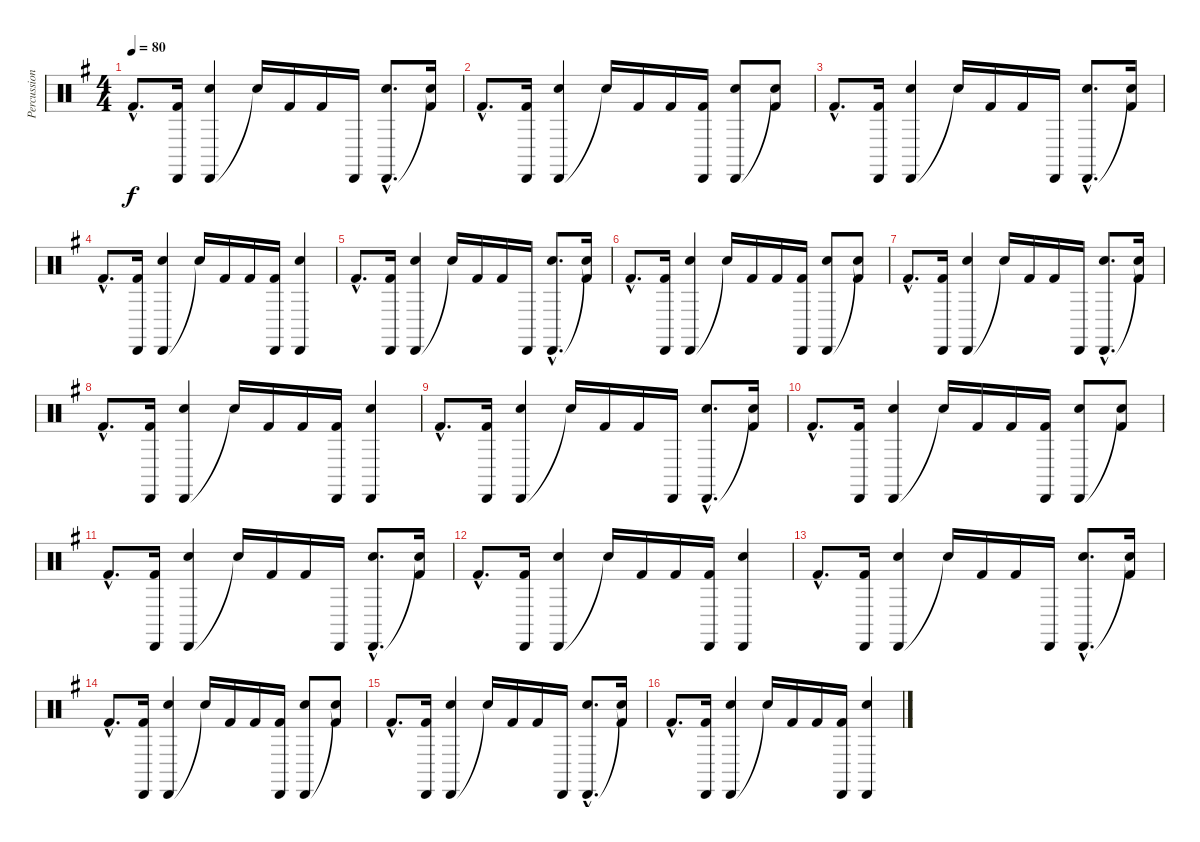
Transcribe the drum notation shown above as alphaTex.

\track ("Percussions" "Percussion") {instrument percussion}
\staff {score}
\articulation defaults
\ts (4 4)
\tempo 80
\clef neutral
\ks g "Kick (hit) 2"{hac}.8{d dy f}
("Cabasa (hit)" "Kick (hit) 2").16 ("Cabasa (hit)" "Electric Snare (hit)").4 "Snare (hit)"{t}.16 "Kick (hit) 2".16 "Kick (hit) 2".16 "Cabasa (hit)".16 ("Cabasa (hit)"{hac} "Electric Snare (hit)"{hac}).8{d} ("Snare (hit)"{t} "Kick (hit) 2").16 |
"Kick (hit) 2"{hac}.8{d} ("Cabasa (hit)" "Kick (hit) 2").16 ("Cabasa (hit)" "Electric Snare (hit)").4 "Snare (hit)"{t}.16 "Kick (hit) 2".16 "Kick (hit) 2".16 ("Cabasa (hit)" "Kick (hit) 2").16 ("Cabasa (hit)" "Electric Snare (hit)").8 ("Snare (hit)"{t} "Kick (hit) 2").8 |
"Kick (hit) 2"{hac}.8{d} ("Cabasa (hit)" "Kick (hit) 2").16 ("Cabasa (hit)" "Electric Snare (hit)").4 "Snare (hit)"{t}.16 "Kick (hit) 2".16 "Kick (hit) 2".16 "Cabasa (hit)".16 ("Cabasa (hit)"{hac} "Electric Snare (hit)"{hac}).8{d} ("Snare (hit)"{t} "Kick (hit) 2").16 |
"Kick (hit) 2"{hac}.8{d} ("Cabasa (hit)" "Kick (hit) 2").16 ("Cabasa (hit)" "Electric Snare (hit)").4 "Snare (hit)"{t}.16 "Kick (hit) 2".16 "Kick (hit) 2".16 ("Cabasa (hit)" "Kick (hit) 2").16 ("Cabasa (hit)" "Electric Snare (hit)").4 |
"Kick (hit) 2"{hac}.8{d} ("Cabasa (hit)" "Kick (hit) 2").16 ("Cabasa (hit)" "Electric Snare (hit)").4 "Snare (hit)"{t}.16 "Kick (hit) 2".16 "Kick (hit) 2".16 "Cabasa (hit)".16 ("Cabasa (hit)"{hac} "Electric Snare (hit)"{hac}).8{d} ("Snare (hit)"{t} "Kick (hit) 2").16 |
"Kick (hit) 2"{hac}.8{d} ("Cabasa (hit)" "Kick (hit) 2").16 ("Cabasa (hit)" "Electric Snare (hit)").4 "Snare (hit)"{t}.16 "Kick (hit) 2".16 "Kick (hit) 2".16 ("Cabasa (hit)" "Kick (hit) 2").16 ("Cabasa (hit)" "Electric Snare (hit)").8 ("Snare (hit)"{t} "Kick (hit) 2").8 |
"Kick (hit) 2"{hac}.8{d} ("Cabasa (hit)" "Kick (hit) 2").16 ("Cabasa (hit)" "Electric Snare (hit)").4 "Snare (hit)"{t}.16 "Kick (hit) 2".16 "Kick (hit) 2".16 "Cabasa (hit)".16 ("Cabasa (hit)"{hac} "Electric Snare (hit)"{hac}).8{d} ("Snare (hit)"{t} "Kick (hit) 2").16 |
"Kick (hit) 2"{hac}.8{d} ("Cabasa (hit)" "Kick (hit) 2").16 ("Cabasa (hit)" "Electric Snare (hit)").4 "Snare (hit)"{t}.16 "Kick (hit) 2".16 "Kick (hit) 2".16 ("Cabasa (hit)" "Kick (hit) 2").16 ("Cabasa (hit)" "Electric Snare (hit)").4 |
"Kick (hit) 2"{hac}.8{d} ("Cabasa (hit)" "Kick (hit) 2").16 ("Cabasa (hit)" "Electric Snare (hit)").4 "Snare (hit)"{t}.16 "Kick (hit) 2".16 "Kick (hit) 2".16 "Cabasa (hit)".16 ("Cabasa (hit)"{hac} "Electric Snare (hit)"{hac}).8{d} ("Snare (hit)"{t} "Kick (hit) 2").16 |
"Kick (hit) 2"{hac}.8{d} ("Cabasa (hit)" "Kick (hit) 2").16 ("Cabasa (hit)" "Electric Snare (hit)").4 "Snare (hit)"{t}.16 "Kick (hit) 2".16 "Kick (hit) 2".16 ("Cabasa (hit)" "Kick (hit) 2").16 ("Cabasa (hit)" "Electric Snare (hit)").8 ("Snare (hit)"{t} "Kick (hit) 2").8 |
"Kick (hit) 2"{hac}.8{d} ("Cabasa (hit)" "Kick (hit) 2").16 ("Cabasa (hit)" "Electric Snare (hit)").4 "Snare (hit)"{t}.16 "Kick (hit) 2".16 "Kick (hit) 2".16 "Cabasa (hit)".16 ("Cabasa (hit)"{hac} "Electric Snare (hit)"{hac}).8{d} ("Snare (hit)"{t} "Kick (hit) 2").16 |
"Kick (hit) 2"{hac}.8{d} ("Cabasa (hit)" "Kick (hit) 2").16 ("Cabasa (hit)" "Electric Snare (hit)").4 "Snare (hit)"{t}.16 "Kick (hit) 2".16 "Kick (hit) 2".16 ("Cabasa (hit)" "Kick (hit) 2").16 ("Cabasa (hit)" "Electric Snare (hit)").4 |
"Kick (hit) 2"{hac}.8{d} ("Cabasa (hit)" "Kick (hit) 2").16 ("Cabasa (hit)" "Electric Snare (hit)").4 "Snare (hit)"{t}.16 "Kick (hit) 2".16 "Kick (hit) 2".16 "Cabasa (hit)".16 ("Cabasa (hit)"{hac} "Electric Snare (hit)"{hac}).8{d} ("Snare (hit)"{t} "Kick (hit) 2").16 |
"Kick (hit) 2"{hac}.8{d} ("Cabasa (hit)" "Kick (hit) 2").16 ("Cabasa (hit)" "Electric Snare (hit)").4 "Snare (hit)"{t}.16 "Kick (hit) 2".16 "Kick (hit) 2".16 ("Cabasa (hit)" "Kick (hit) 2").16 ("Cabasa (hit)" "Electric Snare (hit)").8 ("Snare (hit)"{t} "Kick (hit) 2").8 |
"Kick (hit) 2"{hac}.8{d} ("Cabasa (hit)" "Kick (hit) 2").16 ("Cabasa (hit)" "Electric Snare (hit)").4 "Snare (hit)"{t}.16 "Kick (hit) 2".16 "Kick (hit) 2".16 "Cabasa (hit)".16 ("Cabasa (hit)"{hac} "Electric Snare (hit)"{hac}).8{d} ("Snare (hit)"{t} "Kick (hit) 2").16 |
"Kick (hit) 2"{hac}.8{d} ("Cabasa (hit)" "Kick (hit) 2").16 ("Cabasa (hit)" "Electric Snare (hit)").4 "Snare (hit)"{t}.16 "Kick (hit) 2".16 "Kick (hit) 2".16 ("Cabasa (hit)" "Kick (hit) 2").16 ("Cabasa (hit)" "Electric Snare (hit)").4
